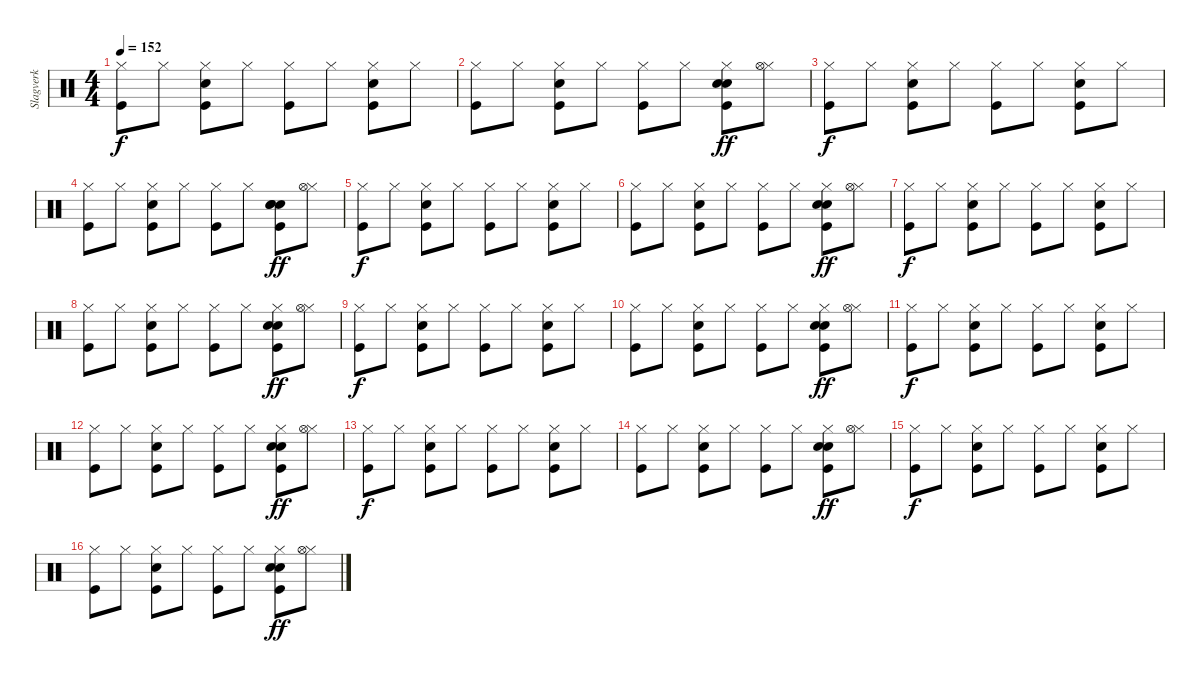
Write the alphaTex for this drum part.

\track ("Slagverk" "Slagverk") {instrument percussion}
\staff {score}
\articulation defaults
\ts (4 4)
\tempo 152
\clef neutral
\ks c
("Kick (hit)" "Hi-Hat (closed)").8{dy f} "Hi-Hat (closed)".8 ("Kick (hit)" "Hi-Hat (closed)" "Snare (hit) 2").8 "Hi-Hat (closed)".8 ("Kick (hit)" "Hi-Hat (closed)").8 "Hi-Hat (closed)".8 ("Kick (hit)" "Hi-Hat (closed)" "Snare (hit) 2").8 "Hi-Hat (closed)".8 |
("Kick (hit)" "Hi-Hat (closed)").8 "Hi-Hat (closed)".8 ("Kick (hit)" "Hi-Hat (closed)" "Snare (hit) 2").8 "Hi-Hat (closed)".8 ("Kick (hit)" "Hi-Hat (closed)").8 "Hi-Hat (closed)".8 ("Kick (hit)" "Hi-Hat (closed)" "Electric Snare (hit)" "Snare (hit) 2").8{dy ff} ("Hi-Hat (closed)" "Hi-Hat (open)").8 |
("Kick (hit)" "Hi-Hat (closed)").8{dy f} "Hi-Hat (closed)".8 ("Kick (hit)" "Hi-Hat (closed)" "Snare (hit) 2").8 "Hi-Hat (closed)".8 ("Kick (hit)" "Hi-Hat (closed)").8 "Hi-Hat (closed)".8 ("Kick (hit)" "Hi-Hat (closed)" "Snare (hit) 2").8 "Hi-Hat (closed)".8 |
("Kick (hit)" "Hi-Hat (closed)").8 "Hi-Hat (closed)".8 ("Kick (hit)" "Hi-Hat (closed)" "Snare (hit) 2").8 "Hi-Hat (closed)".8 ("Kick (hit)" "Hi-Hat (closed)").8 "Hi-Hat (closed)".8 ("Kick (hit)" "Electric Snare (hit)" "Electric Snare (hit)" "Snare (hit) 2").8{dy ff} ("Hi-Hat (closed)" "Hi-Hat (open)").8 |
("Kick (hit)" "Hi-Hat (closed)").8{dy f} "Hi-Hat (closed)".8 ("Kick (hit)" "Hi-Hat (closed)" "Snare (hit) 2").8 "Hi-Hat (closed)".8 ("Kick (hit)" "Hi-Hat (closed)").8 "Hi-Hat (closed)".8 ("Kick (hit)" "Hi-Hat (closed)" "Snare (hit) 2").8 "Hi-Hat (closed)".8 |
("Kick (hit)" "Hi-Hat (closed)").8 "Hi-Hat (closed)".8 ("Kick (hit)" "Hi-Hat (closed)" "Snare (hit) 2").8 "Hi-Hat (closed)".8 ("Kick (hit)" "Hi-Hat (closed)").8 "Hi-Hat (closed)".8 ("Kick (hit)" "Hi-Hat (closed)" "Electric Snare (hit)" "Snare (hit) 2").8{dy ff} ("Hi-Hat (closed)" "Hi-Hat (open)").8 |
("Kick (hit)" "Hi-Hat (closed)").8{dy f} "Hi-Hat (closed)".8 ("Kick (hit)" "Hi-Hat (closed)" "Snare (hit) 2").8 "Hi-Hat (closed)".8 ("Kick (hit)" "Hi-Hat (closed)").8 "Hi-Hat (closed)".8 ("Kick (hit)" "Hi-Hat (closed)" "Snare (hit) 2").8 "Hi-Hat (closed)".8 |
("Kick (hit)" "Hi-Hat (closed)").8 "Hi-Hat (closed)".8 ("Kick (hit)" "Hi-Hat (closed)" "Snare (hit) 2").8 "Hi-Hat (closed)".8 ("Kick (hit)" "Hi-Hat (closed)").8 "Hi-Hat (closed)".8 ("Kick (hit)" "Hi-Hat (closed)" "Electric Snare (hit)" "Snare (hit) 2").8{dy ff} ("Hi-Hat (closed)" "Hi-Hat (open)").8 |
("Kick (hit)" "Hi-Hat (closed)").8{dy f} "Hi-Hat (closed)".8 ("Kick (hit)" "Hi-Hat (closed)" "Snare (hit) 2").8 "Hi-Hat (closed)".8 ("Kick (hit)" "Hi-Hat (closed)").8 "Hi-Hat (closed)".8 ("Kick (hit)" "Hi-Hat (closed)" "Snare (hit) 2").8 "Hi-Hat (closed)".8 |
("Kick (hit)" "Hi-Hat (closed)").8 "Hi-Hat (closed)".8 ("Kick (hit)" "Hi-Hat (closed)" "Snare (hit) 2").8 "Hi-Hat (closed)".8 ("Kick (hit)" "Hi-Hat (closed)").8 "Hi-Hat (closed)".8 ("Kick (hit)" "Hi-Hat (closed)" "Electric Snare (hit)" "Snare (hit) 2").8{dy ff} ("Hi-Hat (closed)" "Hi-Hat (open)").8 |
("Kick (hit)" "Hi-Hat (closed)").8{dy f} "Hi-Hat (closed)".8 ("Kick (hit)" "Hi-Hat (closed)" "Snare (hit) 2").8 "Hi-Hat (closed)".8 ("Kick (hit)" "Hi-Hat (closed)").8 "Hi-Hat (closed)".8 ("Kick (hit)" "Hi-Hat (closed)" "Snare (hit) 2").8 "Hi-Hat (closed)".8 |
("Kick (hit)" "Hi-Hat (closed)").8 "Hi-Hat (closed)".8 ("Kick (hit)" "Hi-Hat (closed)" "Snare (hit) 2").8 "Hi-Hat (closed)".8 ("Kick (hit)" "Hi-Hat (closed)").8 "Hi-Hat (closed)".8 ("Kick (hit)" "Hi-Hat (closed)" "Electric Snare (hit)" "Snare (hit) 2").8{dy ff} ("Hi-Hat (closed)" "Hi-Hat (open)").8 |
("Kick (hit)" "Hi-Hat (closed)").8{dy f} "Hi-Hat (closed)".8 ("Kick (hit)" "Hi-Hat (closed)" "Snare (hit) 2").8 "Hi-Hat (closed)".8 ("Kick (hit)" "Hi-Hat (closed)").8 "Hi-Hat (closed)".8 ("Kick (hit)" "Hi-Hat (closed)" "Snare (hit) 2").8 "Hi-Hat (closed)".8 |
("Kick (hit)" "Hi-Hat (closed)").8 "Hi-Hat (closed)".8 ("Kick (hit)" "Hi-Hat (closed)" "Snare (hit) 2").8 "Hi-Hat (closed)".8 ("Kick (hit)" "Hi-Hat (closed)").8 "Hi-Hat (closed)".8 ("Kick (hit)" "Hi-Hat (closed)" "Electric Snare (hit)" "Snare (hit) 2").8{dy ff} ("Hi-Hat (closed)" "Hi-Hat (open)").8 |
("Kick (hit)" "Hi-Hat (closed)").8{dy f} "Hi-Hat (closed)".8 ("Kick (hit)" "Hi-Hat (closed)" "Snare (hit) 2").8 "Hi-Hat (closed)".8 ("Kick (hit)" "Hi-Hat (closed)").8 "Hi-Hat (closed)".8 ("Kick (hit)" "Hi-Hat (closed)" "Snare (hit) 2").8 "Hi-Hat (closed)".8 |
("Kick (hit)" "Hi-Hat (closed)").8 "Hi-Hat (closed)".8 ("Kick (hit)" "Hi-Hat (closed)" "Snare (hit) 2").8 "Hi-Hat (closed)".8 ("Kick (hit)" "Hi-Hat (closed)").8 "Hi-Hat (closed)".8 ("Kick (hit)" "Hi-Hat (closed)" "Electric Snare (hit)" "Snare (hit) 2").8{dy ff} ("Hi-Hat (closed)" "Hi-Hat (open)").8
